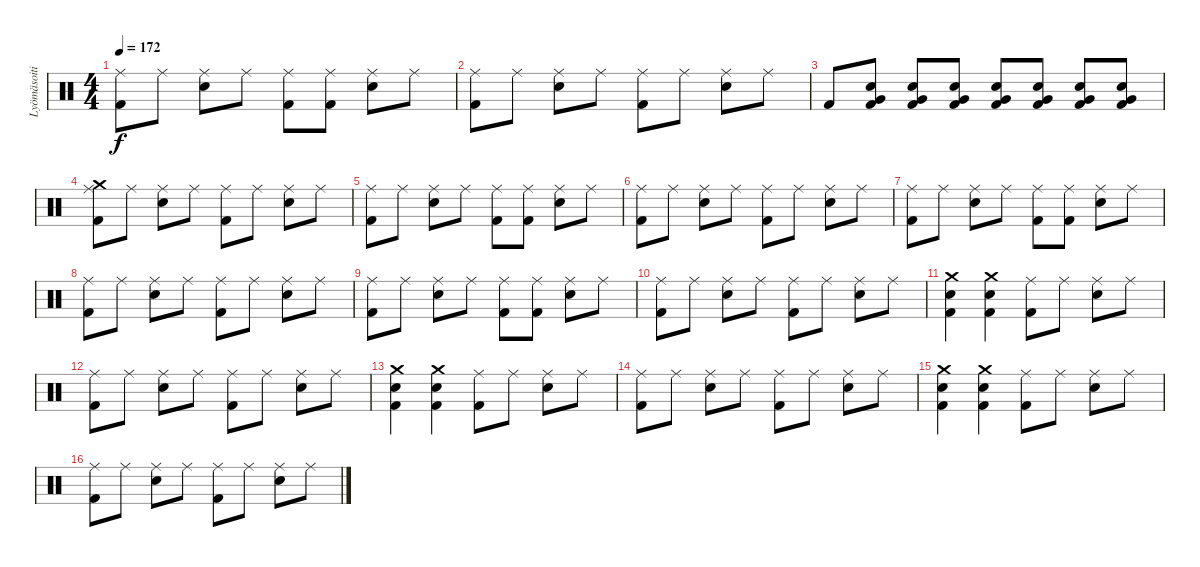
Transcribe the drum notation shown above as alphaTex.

\track ("Lyömäsoitin" "Lyömäsoiti") {instrument percussion}
\staff {score}
\articulation defaults
\ts (4 4)
\tempo 172
\clef neutral
\ks c
("Ride (middle)" "Kick (hit) 2").8{dy f} "Ride (middle)".8 ("Ride (middle)" "Electric Snare (hit)").8 "Ride (middle)".8 ("Ride (middle)" "Kick (hit) 2").8 ("Ride (middle)" "Kick (hit) 2").8 ("Ride (middle)" "Electric Snare (hit)").8 "Ride (middle)".8 |
("Ride (middle)" "Kick (hit) 2").8 "Ride (middle)".8 ("Ride (middle)" "Electric Snare (hit)").8 "Ride (middle)".8 ("Ride (middle)" "Kick (hit) 2").8 "Ride (middle)".8 ("Ride (middle)" "Electric Snare (hit)").8 "Ride (middle)".8 |
"Kick (hit) 2".8 ("Very Low Tom (hit)" "Electric Snare (hit)" "Kick (hit) 2").8 ("Very Low Tom (hit)" "Electric Snare (hit)" "Kick (hit) 2").8 ("Very Low Tom (hit)" "Electric Snare (hit)" "Kick (hit) 2").8 ("Very Low Tom (hit)" "Electric Snare (hit)" "Kick (hit) 2").8 ("Very Low Tom (hit)" "Electric Snare (hit)" "Kick (hit) 2").8 ("Very Low Tom (hit)" "Electric Snare (hit)" "Kick (hit) 2").8 ("Very Low Tom (hit)" "Electric Snare (hit)" "Kick (hit) 2").8 |
("Crash medium (hit)" "Ride (middle)" "Kick (hit) 2").8 "Ride (middle)".8 ("Ride (middle)" "Electric Snare (hit)").8 "Ride (middle)".8 ("Ride (middle)" "Kick (hit) 2").8 "Ride (middle)".8 ("Ride (middle)" "Electric Snare (hit)").8 "Ride (middle)".8 |
("Ride (middle)" "Kick (hit) 2").8 "Ride (middle)".8 ("Ride (middle)" "Electric Snare (hit)").8 "Ride (middle)".8 ("Ride (middle)" "Kick (hit) 2").8 ("Ride (middle)" "Kick (hit) 2").8 ("Ride (middle)" "Electric Snare (hit)").8 "Ride (middle)".8 |
("Ride (middle)" "Kick (hit) 2").8 "Ride (middle)".8 ("Ride (middle)" "Electric Snare (hit)").8 "Ride (middle)".8 ("Ride (middle)" "Kick (hit) 2").8 "Ride (middle)".8 ("Ride (middle)" "Electric Snare (hit)").8 "Ride (middle)".8 |
("Ride (middle)" "Kick (hit) 2").8 "Ride (middle)".8 ("Ride (middle)" "Electric Snare (hit)").8 "Ride (middle)".8 ("Ride (middle)" "Kick (hit) 2").8 ("Ride (middle)" "Kick (hit) 2").8 ("Ride (middle)" "Electric Snare (hit)").8 "Ride (middle)".8 |
("Ride (middle)" "Kick (hit) 2").8 "Ride (middle)".8 ("Ride (middle)" "Electric Snare (hit)").8 "Ride (middle)".8 ("Ride (middle)" "Kick (hit) 2").8 "Ride (middle)".8 ("Ride (middle)" "Electric Snare (hit)").8 "Ride (middle)".8 |
("Ride (middle)" "Kick (hit) 2").8 "Ride (middle)".8 ("Ride (middle)" "Electric Snare (hit)").8 "Ride (middle)".8 ("Ride (middle)" "Kick (hit) 2").8 ("Ride (middle)" "Kick (hit) 2").8 ("Ride (middle)" "Electric Snare (hit)").8 "Ride (middle)".8 |
("Ride (middle)" "Kick (hit) 2").8 "Ride (middle)".8 ("Ride (middle)" "Electric Snare (hit)").8 "Ride (middle)".8 ("Ride (middle)" "Kick (hit) 2").8 "Ride (middle)".8 ("Ride (middle)" "Electric Snare (hit)").8 "Ride (middle)".8 |
("Crash medium (hit)" "Electric Snare (hit)" "Kick (hit) 2").4 ("Crash medium (hit)" "Electric Snare (hit)" "Kick (hit) 2").4 ("Ride (middle)" "Kick (hit) 2").8 "Ride (middle)".8 ("Ride (middle)" "Electric Snare (hit)").8 "Ride (middle)".8 |
("Ride (middle)" "Kick (hit) 2").8 "Ride (middle)".8 ("Ride (middle)" "Electric Snare (hit)").8 "Ride (middle)".8 ("Ride (middle)" "Kick (hit) 2").8 "Ride (middle)".8 ("Ride (middle)" "Electric Snare (hit)").8 "Ride (middle)".8 |
("Crash medium (hit)" "Electric Snare (hit)" "Kick (hit) 2").4 ("Crash medium (hit)" "Electric Snare (hit)" "Kick (hit) 2").4 ("Ride (middle)" "Kick (hit) 2").8 "Ride (middle)".8 ("Ride (middle)" "Electric Snare (hit)").8 "Ride (middle)".8 |
("Ride (middle)" "Kick (hit) 2").8 "Ride (middle)".8 ("Ride (middle)" "Electric Snare (hit)").8 "Ride (middle)".8 ("Ride (middle)" "Kick (hit) 2").8 "Ride (middle)".8 ("Ride (middle)" "Electric Snare (hit)").8 "Ride (middle)".8 |
("Crash medium (hit)" "Electric Snare (hit)" "Kick (hit) 2").4 ("Crash medium (hit)" "Electric Snare (hit)" "Kick (hit) 2").4 ("Ride (middle)" "Kick (hit) 2").8 "Ride (middle)".8 ("Ride (middle)" "Electric Snare (hit)").8 "Ride (middle)".8 |
("Ride (middle)" "Kick (hit) 2").8 "Ride (middle)".8 ("Ride (middle)" "Electric Snare (hit)").8 "Ride (middle)".8 ("Ride (middle)" "Kick (hit) 2").8 "Ride (middle)".8 ("Ride (middle)" "Electric Snare (hit)").8 "Ride (middle)".8
